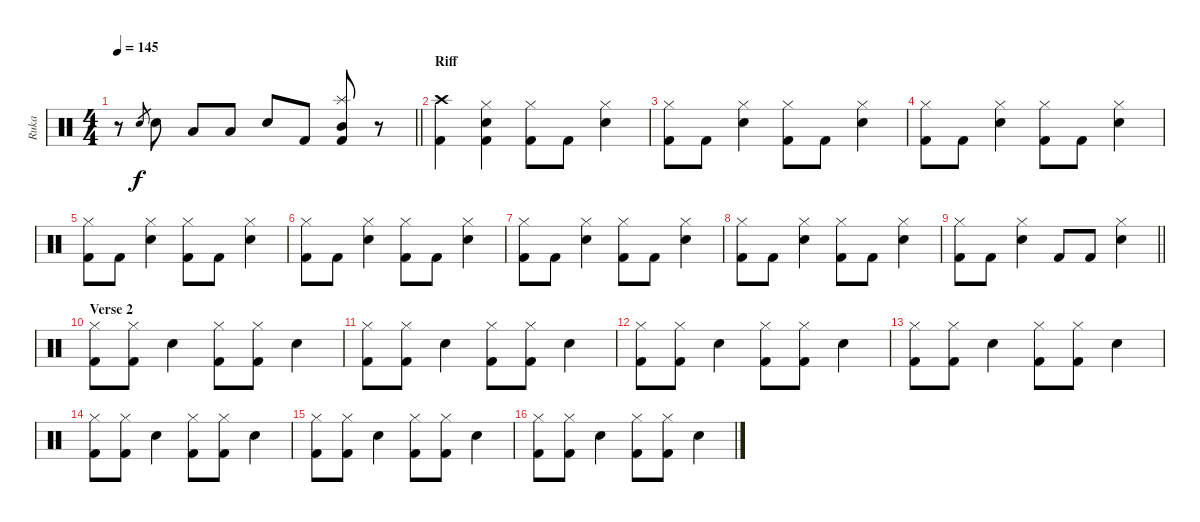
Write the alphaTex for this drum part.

\track ("Ruka" "Ruka") {instrument percussion}
\staff {score}
\articulation defaults
\ts (4 4)
\tempo 145
\clef neutral
\barLineRight lightlight
\ks c
r.8{dy f} "Electric Snare (hit)".8{gr} "Electric Snare (hit)".8 "Low Tom (hit)".8 "Low Tom (hit)".8 "Electric Snare (hit)".8 "Kick (hit) 2".8 ("Splash (hit)" "Mid Tom (hit)" "Kick (hit) 2").8 r.8 |
\section ("" "Riff")
("Crash high (hit)" "Kick (hit) 2").4 ("Hi-Hat (closed)" "Electric Snare (hit)" "Kick (hit) 2").4 ("Hi-Hat (closed)" "Kick (hit) 2").8 "Kick (hit) 2".8 ("Hi-Hat (closed)" "Electric Snare (hit)").4 |
("Hi-Hat (closed)" "Kick (hit) 2").8 "Kick (hit) 2".8 ("Hi-Hat (closed)" "Electric Snare (hit)").4 ("Hi-Hat (closed)" "Kick (hit) 2").8 "Kick (hit) 2".8 ("Hi-Hat (closed)" "Electric Snare (hit)").4 |
("Hi-Hat (closed)" "Kick (hit) 2").8 "Kick (hit) 2".8 ("Hi-Hat (closed)" "Electric Snare (hit)").4 ("Hi-Hat (closed)" "Kick (hit) 2").8 "Kick (hit) 2".8 ("Hi-Hat (closed)" "Electric Snare (hit)").4 |
("Hi-Hat (closed)" "Kick (hit) 2").8 "Kick (hit) 2".8 ("Hi-Hat (closed)" "Electric Snare (hit)").4 ("Hi-Hat (closed)" "Kick (hit) 2").8 "Kick (hit) 2".8 ("Hi-Hat (closed)" "Electric Snare (hit)").4 |
("Hi-Hat (closed)" "Kick (hit) 2").8 "Kick (hit) 2".8 ("Hi-Hat (closed)" "Electric Snare (hit)").4 ("Hi-Hat (closed)" "Kick (hit) 2").8 "Kick (hit) 2".8 ("Hi-Hat (closed)" "Electric Snare (hit)").4 |
("Hi-Hat (closed)" "Kick (hit) 2").8 "Kick (hit) 2".8 ("Hi-Hat (closed)" "Electric Snare (hit)").4 ("Hi-Hat (closed)" "Kick (hit) 2").8 "Kick (hit) 2".8 ("Hi-Hat (closed)" "Electric Snare (hit)").4 |
("Hi-Hat (closed)" "Kick (hit) 2").8 "Kick (hit) 2".8 ("Hi-Hat (closed)" "Electric Snare (hit)").4 ("Hi-Hat (closed)" "Kick (hit) 2").8 "Kick (hit) 2".8 ("Hi-Hat (closed)" "Electric Snare (hit)").4 |
\barLineRight lightlight
("Hi-Hat (closed)" "Kick (hit) 2").8 "Kick (hit) 2".8 ("Hi-Hat (closed)" "Electric Snare (hit)").4 "Kick (hit) 2".8 "Kick (hit) 2".8 ("Hi-Hat (closed)" "Electric Snare (hit)").4 |
\section ("" "Verse 2")
("Hi-Hat (closed)" "Kick (hit) 2").8 ("Hi-Hat (closed)" "Kick (hit) 2").8 "Electric Snare (hit)".4 ("Hi-Hat (closed)" "Kick (hit) 2").8 ("Hi-Hat (closed)" "Kick (hit) 2").8 "Electric Snare (hit)".4 |
("Hi-Hat (closed)" "Kick (hit) 2").8 ("Hi-Hat (closed)" "Kick (hit) 2").8 "Electric Snare (hit)".4 ("Hi-Hat (closed)" "Kick (hit) 2").8 ("Hi-Hat (closed)" "Kick (hit) 2").8 "Electric Snare (hit)".4 |
("Hi-Hat (closed)" "Kick (hit) 2").8 ("Hi-Hat (closed)" "Kick (hit) 2").8 "Electric Snare (hit)".4 ("Hi-Hat (closed)" "Kick (hit) 2").8 ("Hi-Hat (closed)" "Kick (hit) 2").8 "Electric Snare (hit)".4 |
("Hi-Hat (closed)" "Kick (hit) 2").8 ("Hi-Hat (closed)" "Kick (hit) 2").8 "Electric Snare (hit)".4 ("Hi-Hat (closed)" "Kick (hit) 2").8 ("Hi-Hat (closed)" "Kick (hit) 2").8 "Electric Snare (hit)".4 |
("Hi-Hat (closed)" "Kick (hit) 2").8 ("Hi-Hat (closed)" "Kick (hit) 2").8 "Electric Snare (hit)".4 ("Hi-Hat (closed)" "Kick (hit) 2").8 ("Hi-Hat (closed)" "Kick (hit) 2").8 "Electric Snare (hit)".4 |
("Hi-Hat (closed)" "Kick (hit) 2").8 ("Hi-Hat (closed)" "Kick (hit) 2").8 "Electric Snare (hit)".4 ("Hi-Hat (closed)" "Kick (hit) 2").8 ("Hi-Hat (closed)" "Kick (hit) 2").8 "Electric Snare (hit)".4 |
("Hi-Hat (closed)" "Kick (hit) 2").8 ("Hi-Hat (closed)" "Kick (hit) 2").8 "Electric Snare (hit)".4 ("Hi-Hat (closed)" "Kick (hit) 2").8 ("Hi-Hat (closed)" "Kick (hit) 2").8 "Electric Snare (hit)".4
